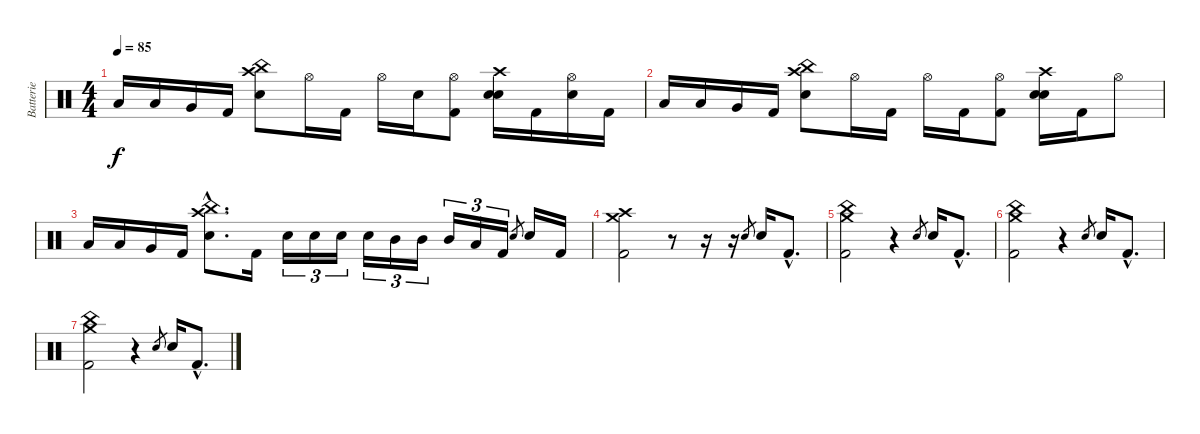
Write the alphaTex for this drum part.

\track ("Batterie" "Batterie") {instrument percussion}
\staff {score}
\articulation defaults
\ts (4 4)
\tempo 85
\clef neutral
\ks c "Low Tom (hit)".16{dy f} "Low Tom (hit)".16 "Very Low Tom (hit)".16 "Kick (hit) 2".16
("Crash high (hit)" "China (hit)" "Electric Snare (hit)").8 "Hi-Hat (open)".16 "Kick (hit) 2".16 "Hi-Hat (open)".16 "Electric Snare (hit)".16 ("Hi-Hat (open)" "Kick (hit) 2").8 ("Crash high (hit)" "Snare (hit)" "Electric Snare (hit)").16 "Kick (hit) 2".16 ("Hi-Hat (open)" "Electric Snare (hit)").16 "Kick (hit) 2".16 |
"Low Tom (hit)".16 "Low Tom (hit)".16 "Very Low Tom (hit)".16 "Kick (hit) 2".16 ("Crash high (hit)" "China (hit)" "Electric Snare (hit)").8 "Hi-Hat (open)".16 "Kick (hit) 2".16 "Hi-Hat (open)".16 "Kick (hit) 2".16 ("Hi-Hat (open)" "Kick (hit) 2").8 ("Crash high (hit)" "Snare (hit)" "Electric Snare (hit)").16 "Kick (hit) 2".16 "Hi-Hat (open)".8 |
"Low Tom (hit)".16 "Low Tom (hit)".16 "Very Low Tom (hit)".16 "Kick (hit) 2".16 ("Crash high (hit)"{hac} "China (hit)"{hac} "Electric Snare (hit)"{hac}).8{d} "Kick (hit) 2".16 "Electric Snare (hit)".16{tu (3 2)} "Electric Snare (hit)".16{tu (3 2)} "Electric Snare (hit)".16{tu (3 2)} "Electric Snare (hit)".16{tu (3 2)} "Mid Tom (hit)".16{tu (3 2)} "Mid Tom (hit)".16{tu (3 2)} "Mid Tom (hit)".16{tu (3 2)} "Low Tom (hit)".16{tu (3 2)} "Kick (hit) 2".16{tu (3 2)} "Electric Snare (hit)".8{gr} "Electric Snare (hit)".16 "Kick (hit) 2".16 |
("Crash medium (hit)" "Crash high (hit)" "Kick (hit) 2").2 r.8 r.16 r.16{volume 5} "Electric Snare (hit)".8{gr} "Electric Snare (hit)".16 "Kick (hit) 2"{hac}.8{d} |
("Crash medium (hit)" "China (hit)" "Kick (hit) 2").2 r.4 "Electric Snare (hit)".8{gr} "Electric Snare (hit)".16 "Kick (hit) 2"{hac}.8{d} |
("Crash medium (hit)" "China (hit)" "Kick (hit) 2").2 r.4 "Electric Snare (hit)".8{gr} "Electric Snare (hit)".16 "Kick (hit) 2"{hac}.8{d} |
("Crash medium (hit)" "China (hit)" "Kick (hit) 2").2 r.4 "Electric Snare (hit)".8{gr} "Electric Snare (hit)".16 "Kick (hit) 2"{hac}.8{d}
